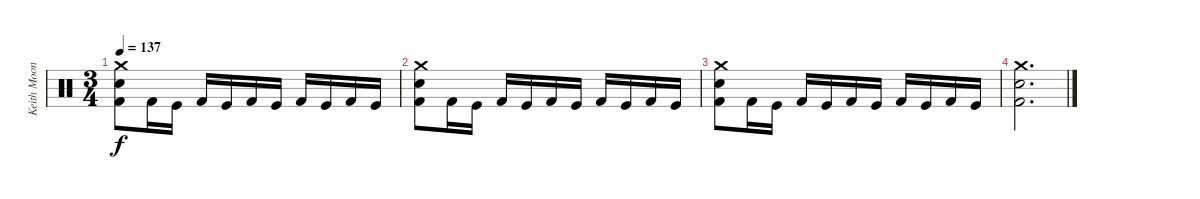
\track ("Keith Moon" "Keith Moon") {instrument percussion}
\staff {score}
\articulation defaults
\ts (3 4)
\tempo 137
\clef neutral
\ks c
("Kick (hit) 2" "Snare (hit) 2" "Crash medium (hit)").8{dy f} "Kick (hit) 2".16 "Kick (hit)".16 "Kick (hit) 2".16 "Kick (hit)".16 "Kick (hit) 2".16 "Kick (hit)".16 "Kick (hit) 2".16 "Kick (hit)".16 "Kick (hit) 2".16 "Kick (hit)".16 |
("Kick (hit) 2" "Snare (hit) 2" "Crash medium (hit)").8 "Kick (hit) 2".16 "Kick (hit)".16 "Kick (hit) 2".16 "Kick (hit)".16 "Kick (hit) 2".16 "Kick (hit)".16 "Kick (hit) 2".16 "Kick (hit)".16 "Kick (hit) 2".16 "Kick (hit)".16 |
("Kick (hit) 2" "Snare (hit) 2" "Crash medium (hit)").8 "Kick (hit) 2".16 "Kick (hit)".16 "Kick (hit) 2".16 "Kick (hit)".16 "Kick (hit) 2".16 "Kick (hit)".16 "Kick (hit) 2".16 "Kick (hit)".16 "Kick (hit) 2".16 "Kick (hit)".16 |
("Kick (hit) 2" "Snare (hit) 2" "Crash medium (hit)").2{d}
